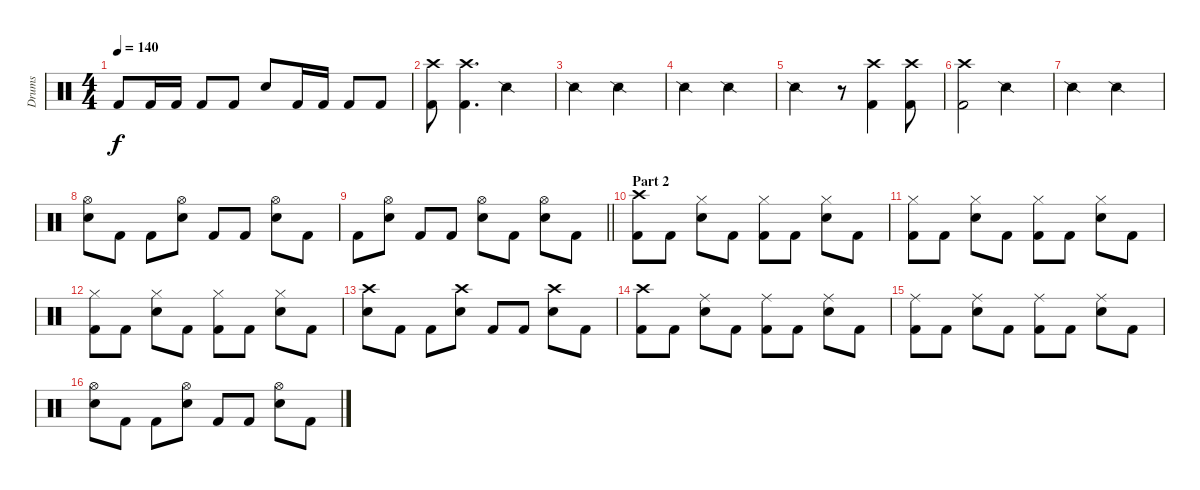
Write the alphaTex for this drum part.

\track ("Drums" "Drums") {instrument percussion}
\staff {score}
\articulation defaults
\ts (4 4)
\tempo 140
\clef neutral
\ks c "Kick (hit) 2".8{dy f} "Kick (hit) 2".16 "Kick (hit) 2".16 "Kick (hit) 2".8 "Kick (hit) 2".8 "Electric Snare (hit)".8 "Kick (hit) 2".16 "Kick (hit) 2".16 "Kick (hit) 2".8 "Kick (hit) 2".8
|
("Crash high (hit)" "Kick (hit) 2").8 ("Crash high (hit)" "Kick (hit) 2").4{d} "Snare (side stick) 2".2 |
"Snare (side stick) 2".2 "Snare (side stick) 2".2 |
"Snare (side stick) 2".2 "Snare (side stick) 2".2 |
"Snare (side stick) 2".2 r.8 ("Crash high (hit)" "Kick (hit) 2").4 ("Crash high (hit)" "Kick (hit) 2").8 |
("Crash high (hit)" "Kick (hit) 2").2 "Snare (side stick) 2".2 |
"Snare (side stick) 2".2 "Snare (side stick) 2".2 |
("Hi-Hat (open)" "Electric Snare (hit)").8 "Kick (hit) 2".8 "Kick (hit) 2".8 ("Hi-Hat (open)" "Electric Snare (hit)").8 "Kick (hit) 2".8 "Kick (hit) 2".8 ("Hi-Hat (open)" "Electric Snare (hit)").8 "Kick (hit) 2".8 |
\barLineRight lightlight "Kick (hit) 2".8
("Hi-Hat (open)" "Electric Snare (hit)").8 "Kick (hit) 2".8 "Kick (hit) 2".8 ("Hi-Hat (open)" "Electric Snare (hit)").8 "Kick (hit) 2".8 ("Hi-Hat (open)" "Electric Snare (hit)").8 "Kick (hit) 2".8 |
\section ("" "Part 2")
("Crash high (hit)" "Kick (hit) 2").8 "Kick (hit) 2".8 ("Hi-Hat (closed)" "Electric Snare (hit)").8 "Kick (hit) 2".8 ("Hi-Hat (closed)" "Kick (hit) 2").8 "Kick (hit) 2".8 ("Hi-Hat (closed)" "Electric Snare (hit)").8 "Kick (hit) 2".8 |
("Hi-Hat (closed)" "Kick (hit) 2").8 "Kick (hit) 2".8 ("Hi-Hat (closed)" "Electric Snare (hit)").8 "Kick (hit) 2".8 ("Hi-Hat (closed)" "Kick (hit) 2").8 "Kick (hit) 2".8 ("Hi-Hat (closed)" "Electric Snare (hit)").8 "Kick (hit) 2".8 |
("Hi-Hat (closed)" "Kick (hit) 2").8 "Kick (hit) 2".8 ("Hi-Hat (closed)" "Electric Snare (hit)").8 "Kick (hit) 2".8 ("Hi-Hat (closed)" "Kick (hit) 2").8 "Kick (hit) 2".8 ("Hi-Hat (closed)" "Electric Snare (hit)").8 "Kick (hit) 2".8 |
("Crash high (hit)" "Electric Snare (hit)").8 "Kick (hit) 2".8 "Kick (hit) 2".8 ("Crash high (hit)" "Electric Snare (hit)").8 "Kick (hit) 2".8 "Kick (hit) 2".8 ("Crash high (hit)" "Electric Snare (hit)").8 "Kick (hit) 2".8 |
("Crash high (hit)" "Kick (hit) 2").8 "Kick (hit) 2".8 ("Ride (middle)" "Electric Snare (hit)").8 "Kick (hit) 2".8 ("Ride (middle)" "Kick (hit) 2").8 "Kick (hit) 2".8 ("Ride (middle)" "Electric Snare (hit)").8 "Kick (hit) 2".8 |
("Ride (middle)" "Kick (hit) 2").8 "Kick (hit) 2".8 ("Ride (middle)" "Electric Snare (hit)").8 "Kick (hit) 2".8 ("Ride (middle)" "Kick (hit) 2").8 "Kick (hit) 2".8 ("Ride (middle)" "Electric Snare (hit)").8 "Kick (hit) 2".8 |
("Hi-Hat (open)" "Electric Snare (hit)").8 "Kick (hit) 2".8 "Kick (hit) 2".8 ("Hi-Hat (open)" "Electric Snare (hit)").8 "Kick (hit) 2".8 "Kick (hit) 2".8 ("Hi-Hat (open)" "Electric Snare (hit)").8 "Kick (hit) 2".8
